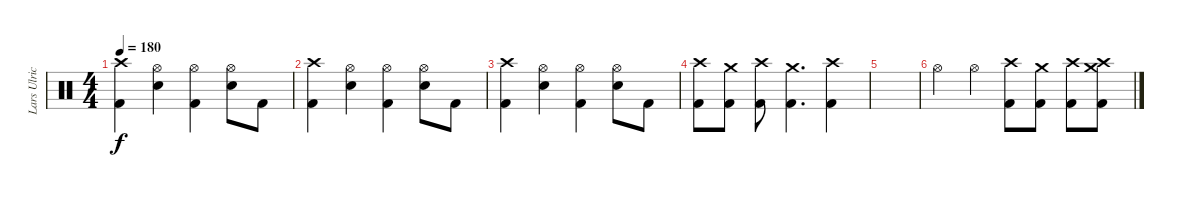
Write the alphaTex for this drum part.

\track ("Lars Ulrich" "Lars Ulric") {instrument percussion}
\staff {score}
\articulation defaults
\ts (4 4)
\tempo 180
\clef neutral
\ks c
("Crash high (hit)" "Kick (hit) 2").4{dy f} ("Hi-Hat (open)" "Electric Snare (hit)").4 ("Hi-Hat (open)" "Kick (hit) 2").4 ("Hi-Hat (open)" "Electric Snare (hit)").8 "Kick (hit) 2".8 |
("Crash high (hit)" "Kick (hit) 2").4 ("Hi-Hat (open)" "Electric Snare (hit)").4 ("Hi-Hat (open)" "Kick (hit) 2").4 ("Hi-Hat (open)" "Electric Snare (hit)").8 "Kick (hit) 2".8 |
("Crash high (hit)" "Kick (hit) 2").4 ("Hi-Hat (open)" "Electric Snare (hit)").4 ("Hi-Hat (open)" "Kick (hit) 2").4 ("Hi-Hat (open)" "Electric Snare (hit)").8 "Kick (hit) 2".8 |
("Crash high (hit)" "Kick (hit) 2").8 ("Crash medium (hit)" "Kick (hit) 2").8 ("Crash high (hit)" "Kick (hit) 2").8 ("Crash medium (hit)" "Kick (hit) 2").4{d} ("Crash high (hit)" "Kick (hit) 2").4 |
|
"Hi-Hat (open)".4 "Hi-Hat (open)".4 ("Crash high (hit)" "Kick (hit) 2").8 ("Crash medium (hit)" "Kick (hit) 2").8 ("Crash high (hit)" "Kick (hit) 2").8 ("Crash high (hit)" "Crash medium (hit)" "Kick (hit) 2").8
